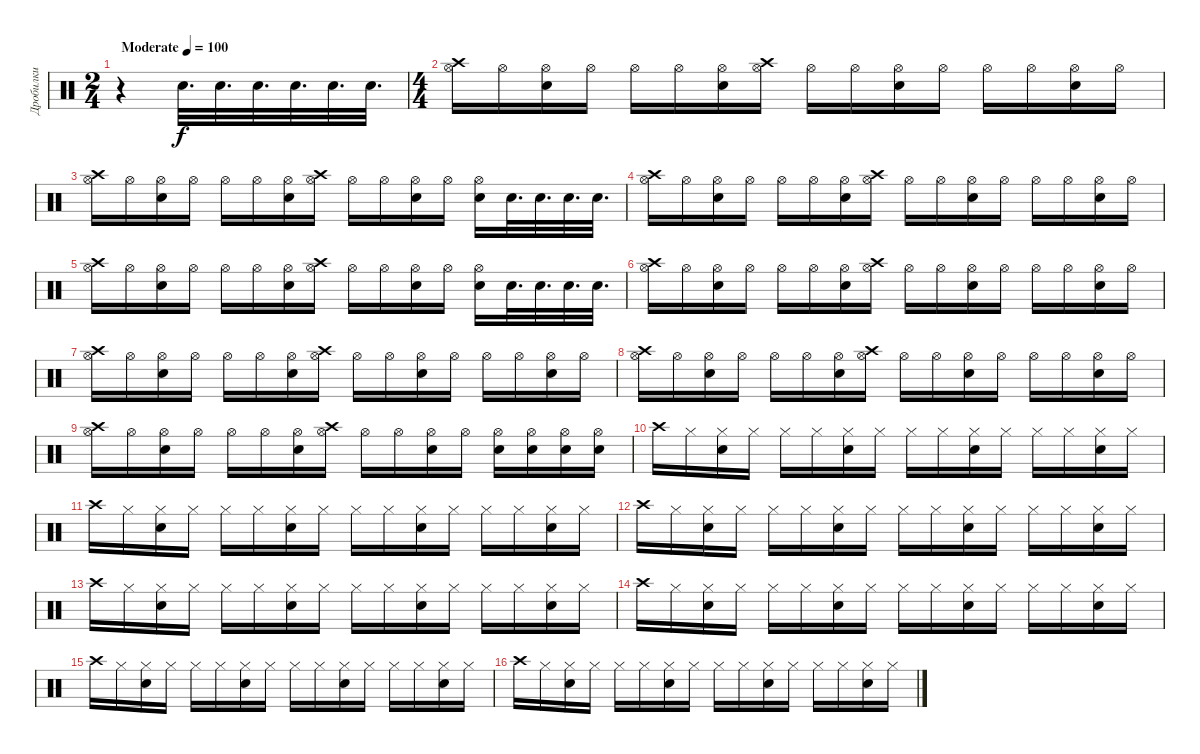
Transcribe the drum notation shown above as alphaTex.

\track ("Дробилки" "Дробилки") {instrument percussion}
\staff {score}
\articulation defaults
\ts (2 4)
\tempo (100 "Moderate")
\clef neutral
\ks c
r.4{dy f} "Snare (hit) 2".32{d} "Snare (hit) 2".32{d} "Snare (hit) 2".32{d} "Snare (hit) 2".32{d} "Snare (hit) 2".32{d} "Snare (hit) 2".32{d} |
\ts (4 4)
("Hi-Hat (open)" "Crash high (hit)").16 "Hi-Hat (open)".16 ("Hi-Hat (open)" "Snare (hit) 2").16 "Hi-Hat (open)".16 "Hi-Hat (open)".16 "Hi-Hat (open)".16 ("Hi-Hat (open)" "Snare (hit) 2").16 ("Hi-Hat (open)" "Crash high (hit)").16 "Hi-Hat (open)".16 "Hi-Hat (open)".16 ("Hi-Hat (open)" "Snare (hit) 2").16 "Hi-Hat (open)".16 "Hi-Hat (open)".16 "Hi-Hat (open)".16 ("Hi-Hat (open)" "Snare (hit) 2").16 "Hi-Hat (open)".16 |
("Hi-Hat (open)" "Crash high (hit)").16 "Hi-Hat (open)".16 ("Hi-Hat (open)" "Snare (hit) 2").16 "Hi-Hat (open)".16 "Hi-Hat (open)".16 "Hi-Hat (open)".16 ("Hi-Hat (open)" "Snare (hit) 2").16 ("Hi-Hat (open)" "Crash high (hit)").16 "Hi-Hat (open)".16 "Hi-Hat (open)".16 ("Hi-Hat (open)" "Snare (hit) 2").16 "Hi-Hat (open)".16 ("Hi-Hat (open)" "Snare (hit) 2").16 "Snare (hit) 2".32{d} "Snare (hit) 2".32{d} "Snare (hit) 2".32{d} "Snare (hit) 2".32{d} |
("Hi-Hat (open)" "Crash high (hit)").16 "Hi-Hat (open)".16 ("Hi-Hat (open)" "Snare (hit) 2").16 "Hi-Hat (open)".16 "Hi-Hat (open)".16 "Hi-Hat (open)".16 ("Hi-Hat (open)" "Snare (hit) 2").16 ("Hi-Hat (open)" "Crash high (hit)").16 "Hi-Hat (open)".16 "Hi-Hat (open)".16 ("Hi-Hat (open)" "Snare (hit) 2").16 "Hi-Hat (open)".16 "Hi-Hat (open)".16 "Hi-Hat (open)".16 ("Hi-Hat (open)" "Snare (hit) 2").16 "Hi-Hat (open)".16 |
("Hi-Hat (open)" "Crash high (hit)").16 "Hi-Hat (open)".16 ("Hi-Hat (open)" "Snare (hit) 2").16 "Hi-Hat (open)".16 "Hi-Hat (open)".16 "Hi-Hat (open)".16 ("Hi-Hat (open)" "Snare (hit) 2").16 ("Hi-Hat (open)" "Crash high (hit)").16 "Hi-Hat (open)".16 "Hi-Hat (open)".16 ("Hi-Hat (open)" "Snare (hit) 2").16 "Hi-Hat (open)".16 ("Hi-Hat (open)" "Snare (hit) 2").16 "Snare (hit) 2".32{d} "Snare (hit) 2".32{d} "Snare (hit) 2".32{d} "Snare (hit) 2".32{d} |
("Hi-Hat (open)" "Crash high (hit)").16 "Hi-Hat (open)".16 ("Hi-Hat (open)" "Snare (hit) 2").16 "Hi-Hat (open)".16 "Hi-Hat (open)".16 "Hi-Hat (open)".16 ("Hi-Hat (open)" "Snare (hit) 2").16 ("Hi-Hat (open)" "Crash high (hit)").16 "Hi-Hat (open)".16 "Hi-Hat (open)".16 ("Hi-Hat (open)" "Snare (hit) 2").16 "Hi-Hat (open)".16 "Hi-Hat (open)".16 "Hi-Hat (open)".16 ("Hi-Hat (open)" "Snare (hit) 2").16 "Hi-Hat (open)".16 |
("Hi-Hat (open)" "Crash high (hit)").16 "Hi-Hat (open)".16 ("Hi-Hat (open)" "Snare (hit) 2").16 "Hi-Hat (open)".16 "Hi-Hat (open)".16 "Hi-Hat (open)".16 ("Hi-Hat (open)" "Snare (hit) 2").16 ("Hi-Hat (open)" "Crash high (hit)").16 "Hi-Hat (open)".16 "Hi-Hat (open)".16 ("Hi-Hat (open)" "Snare (hit) 2").16 "Hi-Hat (open)".16 "Hi-Hat (open)".16 "Hi-Hat (open)".16 ("Hi-Hat (open)" "Snare (hit) 2").16 "Hi-Hat (open)".16 |
("Hi-Hat (open)" "Crash high (hit)").16 "Hi-Hat (open)".16 ("Hi-Hat (open)" "Snare (hit) 2").16 "Hi-Hat (open)".16 "Hi-Hat (open)".16 "Hi-Hat (open)".16 ("Hi-Hat (open)" "Snare (hit) 2").16 ("Hi-Hat (open)" "Crash high (hit)").16 "Hi-Hat (open)".16 "Hi-Hat (open)".16 ("Hi-Hat (open)" "Snare (hit) 2").16 "Hi-Hat (open)".16 "Hi-Hat (open)".16 "Hi-Hat (open)".16 ("Hi-Hat (open)" "Snare (hit) 2").16 "Hi-Hat (open)".16 |
("Hi-Hat (open)" "Crash high (hit)").16 "Hi-Hat (open)".16 ("Hi-Hat (open)" "Snare (hit) 2").16 "Hi-Hat (open)".16 "Hi-Hat (open)".16 "Hi-Hat (open)".16 ("Hi-Hat (open)" "Snare (hit) 2").16 ("Hi-Hat (open)" "Crash high (hit)").16 "Hi-Hat (open)".16 "Hi-Hat (open)".16 ("Hi-Hat (open)" "Snare (hit) 2").16 "Hi-Hat (open)".16 ("Hi-Hat (open)" "Snare (hit) 2").16 ("Hi-Hat (open)" "Snare (hit) 2").16 ("Hi-Hat (open)" "Snare (hit) 2").16 ("Hi-Hat (open)" "Snare (hit) 2").16 |
"Crash high (hit)".16 "Hi-Hat (closed)".16 ("Hi-Hat (closed)" "Snare (hit) 2").16 "Hi-Hat (closed)".16 "Hi-Hat (closed)".16 "Hi-Hat (closed)".16 ("Hi-Hat (closed)" "Snare (hit) 2").16 "Hi-Hat (closed)".16 "Hi-Hat (closed)".16 "Hi-Hat (closed)".16 ("Hi-Hat (closed)" "Snare (hit) 2").16 "Hi-Hat (closed)".16 "Hi-Hat (closed)".16 "Hi-Hat (closed)".16 ("Hi-Hat (closed)" "Snare (hit) 2").16 "Hi-Hat (closed)".16 |
"Crash high (hit)".16 "Hi-Hat (closed)".16 ("Hi-Hat (closed)" "Snare (hit) 2").16 "Hi-Hat (closed)".16 "Hi-Hat (closed)".16 "Hi-Hat (closed)".16 ("Hi-Hat (closed)" "Snare (hit) 2").16 "Hi-Hat (closed)".16 "Hi-Hat (closed)".16 "Hi-Hat (closed)".16 ("Hi-Hat (closed)" "Snare (hit) 2").16 "Hi-Hat (closed)".16 "Hi-Hat (closed)".16 "Hi-Hat (closed)".16 ("Hi-Hat (closed)" "Snare (hit) 2").16 "Hi-Hat (closed)".16 |
"Crash high (hit)".16 "Hi-Hat (closed)".16 ("Hi-Hat (closed)" "Snare (hit) 2").16 "Hi-Hat (closed)".16 "Hi-Hat (closed)".16 "Hi-Hat (closed)".16 ("Hi-Hat (closed)" "Snare (hit) 2").16 "Hi-Hat (closed)".16 "Hi-Hat (closed)".16 "Hi-Hat (closed)".16 ("Hi-Hat (closed)" "Snare (hit) 2").16 "Hi-Hat (closed)".16 "Hi-Hat (closed)".16 "Hi-Hat (closed)".16 ("Hi-Hat (closed)" "Snare (hit) 2").16 "Hi-Hat (closed)".16 |
"Crash high (hit)".16 "Hi-Hat (closed)".16 ("Hi-Hat (closed)" "Snare (hit) 2").16 "Hi-Hat (closed)".16 "Hi-Hat (closed)".16 "Hi-Hat (closed)".16 ("Hi-Hat (closed)" "Snare (hit) 2").16 "Hi-Hat (closed)".16 "Hi-Hat (closed)".16 "Hi-Hat (closed)".16 ("Hi-Hat (closed)" "Snare (hit) 2").16 "Hi-Hat (closed)".16 "Hi-Hat (closed)".16 "Hi-Hat (closed)".16 ("Hi-Hat (closed)" "Snare (hit) 2").16 "Hi-Hat (closed)".16 |
"Crash high (hit)".16 "Hi-Hat (closed)".16 ("Hi-Hat (closed)" "Snare (hit) 2").16 "Hi-Hat (closed)".16 "Hi-Hat (closed)".16 "Hi-Hat (closed)".16 ("Hi-Hat (closed)" "Snare (hit) 2").16 "Hi-Hat (closed)".16 "Hi-Hat (closed)".16 "Hi-Hat (closed)".16 ("Hi-Hat (closed)" "Snare (hit) 2").16 "Hi-Hat (closed)".16 "Hi-Hat (closed)".16 "Hi-Hat (closed)".16 ("Hi-Hat (closed)" "Snare (hit) 2").16 "Hi-Hat (closed)".16 |
"Crash high (hit)".16 "Hi-Hat (closed)".16 ("Hi-Hat (closed)" "Snare (hit) 2").16 "Hi-Hat (closed)".16 "Hi-Hat (closed)".16 "Hi-Hat (closed)".16 ("Hi-Hat (closed)" "Snare (hit) 2").16 "Hi-Hat (closed)".16 "Hi-Hat (closed)".16 "Hi-Hat (closed)".16 ("Hi-Hat (closed)" "Snare (hit) 2").16 "Hi-Hat (closed)".16 "Hi-Hat (closed)".16 "Hi-Hat (closed)".16 ("Hi-Hat (closed)" "Snare (hit) 2").16 "Hi-Hat (closed)".16 |
"Crash high (hit)".16 "Hi-Hat (closed)".16 ("Hi-Hat (closed)" "Snare (hit) 2").16 "Hi-Hat (closed)".16 "Hi-Hat (closed)".16 "Hi-Hat (closed)".16 ("Hi-Hat (closed)" "Snare (hit) 2").16 "Hi-Hat (closed)".16 "Hi-Hat (closed)".16 "Hi-Hat (closed)".16 ("Hi-Hat (closed)" "Snare (hit) 2").16 "Hi-Hat (closed)".16 "Hi-Hat (closed)".16 "Hi-Hat (closed)".16 ("Hi-Hat (closed)" "Snare (hit) 2").16 "Hi-Hat (closed)".16
